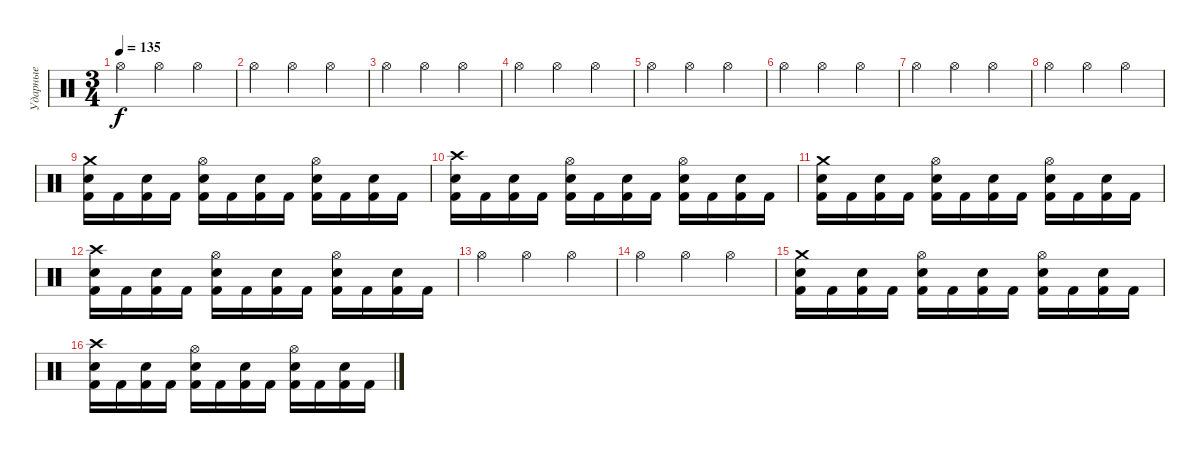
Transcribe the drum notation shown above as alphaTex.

\track ("Ударные" "Ударные") {instrument percussion}
\staff {score}
\articulation defaults
\ts (3 4)
\tempo 135
\clef neutral
\ks c "Hi-Hat (open)".4{dy f} "Hi-Hat (open)".4 "Hi-Hat (open)".4
|
"Hi-Hat (open)".4 "Hi-Hat (open)".4 "Hi-Hat (open)".4 |
"Hi-Hat (open)".4 "Hi-Hat (open)".4 "Hi-Hat (open)".4 |
"Hi-Hat (open)".4 "Hi-Hat (open)".4 "Hi-Hat (open)".4 |
"Hi-Hat (open)".4 "Hi-Hat (open)".4 "Hi-Hat (open)".4 |
"Hi-Hat (open)".4 "Hi-Hat (open)".4 "Hi-Hat (open)".4 |
"Hi-Hat (open)".4 "Hi-Hat (open)".4 "Hi-Hat (open)".4 |
"Hi-Hat (open)".4 "Hi-Hat (open)".4 "Hi-Hat (open)".4 |
("Crash medium (hit)" "Electric Snare (hit)" "Kick (hit) 2").16 "Kick (hit) 2".16 ("Electric Snare (hit)" "Kick (hit) 2").16 "Kick (hit) 2".16 ("Hi-Hat (open)" "Electric Snare (hit)" "Kick (hit) 2").16 "Kick (hit) 2".16 ("Electric Snare (hit)" "Kick (hit) 2").16 "Kick (hit) 2".16 ("Hi-Hat (open)" "Electric Snare (hit)" "Kick (hit) 2").16 "Kick (hit) 2".16 ("Electric Snare (hit)" "Kick (hit) 2").16 "Kick (hit) 2".16 |
("Crash high (hit)" "Electric Snare (hit)" "Kick (hit) 2").16 "Kick (hit) 2".16 ("Electric Snare (hit)" "Kick (hit) 2").16 "Kick (hit) 2".16 ("Hi-Hat (open)" "Electric Snare (hit)" "Kick (hit) 2").16 "Kick (hit) 2".16 ("Electric Snare (hit)" "Kick (hit) 2").16 "Kick (hit) 2".16 ("Hi-Hat (open)" "Electric Snare (hit)" "Kick (hit) 2").16 "Kick (hit) 2".16 ("Electric Snare (hit)" "Kick (hit) 2").16 "Kick (hit) 2".16 |
("Crash medium (hit)" "Electric Snare (hit)" "Kick (hit) 2").16 "Kick (hit) 2".16 ("Electric Snare (hit)" "Kick (hit) 2").16 "Kick (hit) 2".16 ("Hi-Hat (open)" "Electric Snare (hit)" "Kick (hit) 2").16 "Kick (hit) 2".16 ("Electric Snare (hit)" "Kick (hit) 2").16 "Kick (hit) 2".16 ("Hi-Hat (open)" "Electric Snare (hit)" "Kick (hit) 2").16 "Kick (hit) 2".16 ("Electric Snare (hit)" "Kick (hit) 2").16 "Kick (hit) 2".16 |
("Crash high (hit)" "Electric Snare (hit)" "Kick (hit) 2").16 "Kick (hit) 2".16 ("Electric Snare (hit)" "Kick (hit) 2").16 "Kick (hit) 2".16 ("Hi-Hat (open)" "Electric Snare (hit)" "Kick (hit) 2").16 "Kick (hit) 2".16 ("Electric Snare (hit)" "Kick (hit) 2").16 "Kick (hit) 2".16 ("Hi-Hat (open)" "Electric Snare (hit)" "Kick (hit) 2").16 "Kick (hit) 2".16 ("Electric Snare (hit)" "Kick (hit) 2").16 "Kick (hit) 2".16 |
"Hi-Hat (open)".4 "Hi-Hat (open)".4 "Hi-Hat (open)".4 |
"Hi-Hat (open)".4 "Hi-Hat (open)".4 "Hi-Hat (open)".4 |
("Crash medium (hit)" "Electric Snare (hit)" "Kick (hit) 2").16 "Kick (hit) 2".16 ("Electric Snare (hit)" "Kick (hit) 2").16 "Kick (hit) 2".16 ("Hi-Hat (open)" "Electric Snare (hit)" "Kick (hit) 2").16 "Kick (hit) 2".16 ("Electric Snare (hit)" "Kick (hit) 2").16 "Kick (hit) 2".16 ("Hi-Hat (open)" "Electric Snare (hit)" "Kick (hit) 2").16 "Kick (hit) 2".16 ("Electric Snare (hit)" "Kick (hit) 2").16 "Kick (hit) 2".16 |
("Crash high (hit)" "Electric Snare (hit)" "Kick (hit) 2").16 "Kick (hit) 2".16 ("Electric Snare (hit)" "Kick (hit) 2").16 "Kick (hit) 2".16 ("Hi-Hat (open)" "Electric Snare (hit)" "Kick (hit) 2").16 "Kick (hit) 2".16 ("Electric Snare (hit)" "Kick (hit) 2").16 "Kick (hit) 2".16 ("Hi-Hat (open)" "Electric Snare (hit)" "Kick (hit) 2").16 "Kick (hit) 2".16 ("Electric Snare (hit)" "Kick (hit) 2").16 "Kick (hit) 2".16
